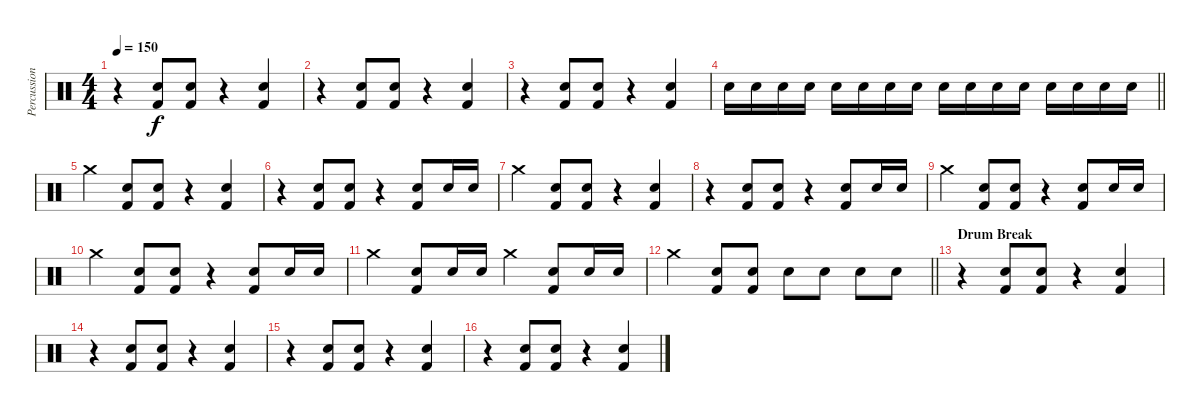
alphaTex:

\track ("Percussion" "Percussion") {instrument percussion}
\staff {score}
\articulation defaults
\ts (4 4)
\tempo 150
\clef neutral
\ks c
r.4{dy f} ("Snare (hit) 2" "Kick (hit) 2").8 ("Snare (hit) 2" "Kick (hit) 2").8 r.4 ("Snare (hit) 2" "Kick (hit) 2").4 |
r.4 ("Snare (hit) 2" "Kick (hit) 2").8 ("Snare (hit) 2" "Kick (hit) 2").8 r.4 ("Snare (hit) 2" "Kick (hit) 2").4 |
r.4 ("Snare (hit) 2" "Kick (hit) 2").8 ("Snare (hit) 2" "Kick (hit) 2").8 r.4 ("Snare (hit) 2" "Kick (hit) 2").4 |
\barLineRight lightlight "Electric Snare (hit)".16 "Electric Snare (hit)".16 "Electric Snare (hit)".16 "Electric Snare (hit)".16 "Snare (hit) 2".16 "Snare (hit) 2".16 "Snare (hit) 2".16 "Snare (hit) 2".16 "Electric Snare (hit)".16 "Electric Snare (hit)".16 "Electric Snare (hit)".16 "Electric Snare (hit)".16 "Snare (hit) 2".16 "Snare (hit) 2".16 "Snare (hit) 2".16 "Snare (hit) 2".16
|
"Crash medium (hit)".4 ("Snare (hit) 2" "Kick (hit) 2").8 ("Snare (hit) 2" "Kick (hit) 2").8 r.4 ("Snare (hit) 2" "Kick (hit) 2").4 |
r.4 ("Snare (hit) 2" "Kick (hit) 2").8 ("Snare (hit) 2" "Kick (hit) 2").8 r.4 ("Snare (hit) 2" "Kick (hit) 2").8 "Snare (hit) 2".16 "Snare (hit) 2".16 |
"Crash medium (hit)".4 ("Snare (hit) 2" "Kick (hit) 2").8 ("Snare (hit) 2" "Kick (hit) 2").8 r.4 ("Snare (hit) 2" "Kick (hit) 2").4 |
r.4 ("Snare (hit) 2" "Kick (hit) 2").8 ("Snare (hit) 2" "Kick (hit) 2").8 r.4 ("Snare (hit) 2" "Kick (hit) 2").8 "Snare (hit) 2".16 "Snare (hit) 2".16 |
"Crash medium (hit)".4 ("Snare (hit) 2" "Kick (hit) 2").8 ("Snare (hit) 2" "Kick (hit) 2").8 r.4 ("Snare (hit) 2" "Kick (hit) 2").8 "Snare (hit) 2".16 "Snare (hit) 2".16 |
"Crash medium (hit)".4 ("Snare (hit) 2" "Kick (hit) 2").8 ("Snare (hit) 2" "Kick (hit) 2").8 r.4 ("Snare (hit) 2" "Kick (hit) 2").8 "Snare (hit) 2".16 "Snare (hit) 2".16 |
"Crash medium (hit)".4 ("Snare (hit) 2" "Kick (hit) 2").8 "Snare (hit) 2".16 "Snare (hit) 2".16 "Crash medium (hit)".4 ("Snare (hit) 2" "Kick (hit) 2").8 "Snare (hit) 2".16 "Snare (hit) 2".16 |
\barLineRight lightlight "Crash medium (hit)".4
("Snare (hit) 2" "Kick (hit) 2").8 ("Snare (hit) 2" "Kick (hit) 2").8 "Electric Snare (hit)".8 "Electric Snare (hit)".8 "Snare (hit) 2".8 "Snare (hit) 2".8 |
\section ("" "Drum Break")
r.4 ("Snare (hit) 2" "Kick (hit) 2").8 ("Snare (hit) 2" "Kick (hit) 2").8 r.4 ("Snare (hit) 2" "Kick (hit) 2").4 |
r.4 ("Snare (hit) 2" "Kick (hit) 2").8 ("Snare (hit) 2" "Kick (hit) 2").8 r.4 ("Snare (hit) 2" "Kick (hit) 2").4 |
r.4 ("Snare (hit) 2" "Kick (hit) 2").8 ("Snare (hit) 2" "Kick (hit) 2").8 r.4 ("Snare (hit) 2" "Kick (hit) 2").4 |
r.4 ("Snare (hit) 2" "Kick (hit) 2").8 ("Snare (hit) 2" "Kick (hit) 2").8 r.4 ("Snare (hit) 2" "Kick (hit) 2").4
